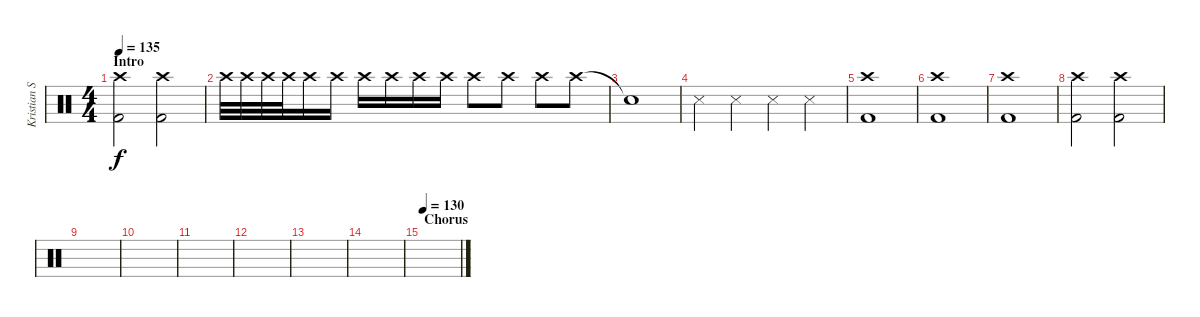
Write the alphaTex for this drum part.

\track ("Kristian Sandorff - drums" "Kristian S") {instrument percussion}
\staff {score}
\articulation defaults
\ts (4 4)
\section ("" "Intro")
\tempo 135
\clef neutral
\ks c
("Crash high (hit)" "Kick (hit) 2").2{dy f} ("Crash high (hit)" "Kick (hit) 2").2 |
"Crash high (hit)".32 "Crash high (hit)".32 "Crash high (hit)".32 "Crash high (hit)".32 "Crash high (hit)".16 "Crash high (hit)".16 "Crash high (hit)".16 "Crash high (hit)".16 "Crash high (hit)".16 "Crash high (hit)".16 "Crash high (hit)".8 "Crash high (hit)".8 "Crash high (hit)".8 "Crash high (hit)".8 |
"Snare (hit)"{t}.1 |
"Snare (side stick) 3".4 "Snare (side stick) 3".4 "Snare (side stick) 3".4 "Snare (side stick) 3".4 |
("Crash high (hit)" "Kick (hit) 2").1 |
("Crash high (hit)" "Kick (hit) 2").1 |
("Crash high (hit)" "Kick (hit) 2").1 |
("Crash high (hit)" "Kick (hit) 2").2 ("Crash high (hit)" "Kick (hit) 2").2 |
|
|
|
|
|
|
\section ("" "Chorus")
\tempo 130
